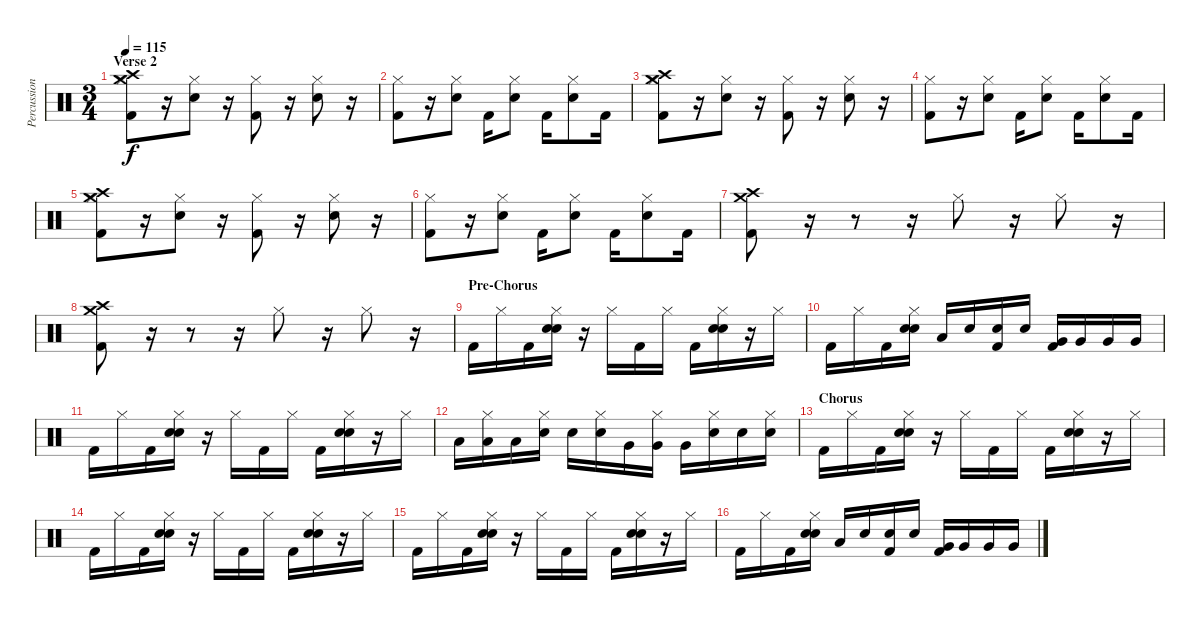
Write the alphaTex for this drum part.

\track ("Percussion" "Percussion") {instrument percussion}
\staff {score}
\articulation defaults
\ts (3 4)
\section ("" "Verse 2")
\tempo 115
\clef neutral
\ks c
("Hi-Hat (closed)" "Crash high (hit)" "Crash medium (hit)" "Kick (hit) 2").8{dy f} r.16 ("Hi-Hat (closed)" "Snare (hit) 2").8 r.16 ("Hi-Hat (closed)" "Kick (hit) 2").8 r.16 ("Hi-Hat (closed)" "Snare (hit) 2").8 r.16 |
("Hi-Hat (closed)" "Kick (hit) 2").8 r.16 ("Hi-Hat (closed)" "Snare (hit) 2").8 "Kick (hit) 2".16 ("Hi-Hat (closed)" "Snare (hit) 2").8 "Kick (hit) 2".16 ("Hi-Hat (closed)" "Snare (hit) 2").8 "Kick (hit) 2".16 |
("Hi-Hat (closed)" "Crash medium (hit)" "Crash high (hit)" "Kick (hit) 2").8 r.16 ("Hi-Hat (closed)" "Snare (hit) 2").8 r.16 ("Hi-Hat (closed)" "Kick (hit) 2").8 r.16 ("Hi-Hat (closed)" "Snare (hit) 2").8 r.16 |
("Hi-Hat (closed)" "Kick (hit) 2").8 r.16 ("Hi-Hat (closed)" "Snare (hit) 2").8 "Kick (hit) 2".16 ("Hi-Hat (closed)" "Snare (hit) 2").8 "Kick (hit) 2".16 ("Hi-Hat (closed)" "Snare (hit) 2").8 "Kick (hit) 2".16 |
("Hi-Hat (closed)" "Crash medium (hit)" "Crash high (hit)" "Kick (hit) 2").8 r.16 ("Hi-Hat (closed)" "Snare (hit) 2").8 r.16 ("Hi-Hat (closed)" "Kick (hit) 2").8 r.16 ("Hi-Hat (closed)" "Snare (hit) 2").8 r.16 |
("Hi-Hat (closed)" "Kick (hit) 2").8 r.16 ("Hi-Hat (closed)" "Snare (hit) 2").8 "Kick (hit) 2".16 ("Hi-Hat (closed)" "Snare (hit) 2").8 "Kick (hit) 2".16 ("Hi-Hat (closed)" "Snare (hit) 2").8 "Kick (hit) 2".16 |
("Crash medium (hit)" "Crash high (hit)" "Kick (hit) 2").8 r.16 r.8 r.16 "Hi-Hat (closed)".8 r.16 "Hi-Hat (closed)".8 r.16 |
("Crash medium (hit)" "Crash high (hit)" "Kick (hit) 2").8 r.16 r.8 r.16 "Hi-Hat (closed)".8 r.16 "Hi-Hat (closed)".8 r.16 |
\section ("" "Pre-Chorus")
"Kick (hit) 2".16 "Hi-Hat (closed)".16 "Kick (hit) 2".16 ("Hi-Hat (closed)" "Snare (hit) 2" "Snare (hit) 2").16 r.16 "Hi-Hat (closed)".16 "Kick (hit) 2".16 "Hi-Hat (closed)".16 "Kick (hit) 2".16 ("Hi-Hat (closed)" "Snare (hit) 2" "Snare (hit) 2").16 r.16 "Hi-Hat (closed)".16 |
"Kick (hit) 2".16 "Hi-Hat (closed)".16 "Kick (hit) 2".16 ("Hi-Hat (closed)" "Snare (hit) 2" "Snare (hit) 2").16 "Low Tom (hit)".16 "Snare (hit) 2".16 ("Snare (hit) 2" "Kick (hit) 2").16 "Snare (hit) 2".16 ("Very Low Tom (hit)" "Kick (hit) 2").16 "Very Low Tom (hit)".16 "Very Low Tom (hit)".16 "Very Low Tom (hit)".16 |
"Kick (hit) 2".16 "Hi-Hat (closed)".16 "Kick (hit) 2".16 ("Hi-Hat (closed)" "Snare (hit) 2" "Snare (hit) 2").16 r.16 "Hi-Hat (closed)".16 "Kick (hit) 2".16 "Hi-Hat (closed)".16 "Kick (hit) 2".16 ("Hi-Hat (closed)" "Snare (hit) 2" "Snare (hit) 2").16 r.16 "Hi-Hat (closed)".16 |
"Low Tom (hit)".16 ("Hi-Hat (closed)" "Low Tom (hit)").16 "Low Tom (hit)".16 ("Hi-Hat (closed)" "Snare (hit) 2").16 "Snare (hit) 2".16 ("Hi-Hat (closed)" "Snare (hit) 2").16 "Very Low Tom (hit)".16 ("Hi-Hat (closed)" "Very Low Tom (hit)").16 "Very Low Tom (hit)".16 ("Hi-Hat (closed)" "Snare (hit) 2").16 "Snare (hit) 2".16 ("Hi-Hat (closed)" "Snare (hit) 2").16 |
\section ("" "Chorus")
"Kick (hit) 2".16 "Hi-Hat (closed)".16 "Kick (hit) 2".16 ("Hi-Hat (closed)" "Snare (hit) 2" "Snare (hit) 2").16 r.16 "Hi-Hat (closed)".16 "Kick (hit) 2".16 "Hi-Hat (closed)".16 "Kick (hit) 2".16 ("Hi-Hat (closed)" "Snare (hit) 2" "Snare (hit) 2").16 r.16 "Hi-Hat (closed)".16 |
"Kick (hit) 2".16 "Hi-Hat (closed)".16 "Kick (hit) 2".16 ("Hi-Hat (closed)" "Snare (hit) 2" "Snare (hit) 2").16 r.16 "Hi-Hat (closed)".16 "Kick (hit) 2".16 "Hi-Hat (closed)".16 "Kick (hit) 2".16 ("Hi-Hat (closed)" "Snare (hit) 2" "Snare (hit) 2").16 r.16 "Hi-Hat (closed)".16 |
"Kick (hit) 2".16 "Hi-Hat (closed)".16 "Kick (hit) 2".16 ("Hi-Hat (closed)" "Snare (hit) 2" "Snare (hit) 2").16 r.16 "Hi-Hat (closed)".16 "Kick (hit) 2".16 "Hi-Hat (closed)".16 "Kick (hit) 2".16 ("Hi-Hat (closed)" "Snare (hit) 2" "Snare (hit) 2").16 r.16 "Hi-Hat (closed)".16 |
"Kick (hit) 2".16 "Hi-Hat (closed)".16 "Kick (hit) 2".16 ("Hi-Hat (closed)" "Snare (hit) 2" "Snare (hit) 2").16 "Low Tom (hit)".16 "Snare (hit) 2".16 ("Snare (hit) 2" "Kick (hit) 2").16 "Snare (hit) 2".16 ("Very Low Tom (hit)" "Kick (hit) 2").16 "Very Low Tom (hit)".16 "Very Low Tom (hit)".16 "Very Low Tom (hit)".16
